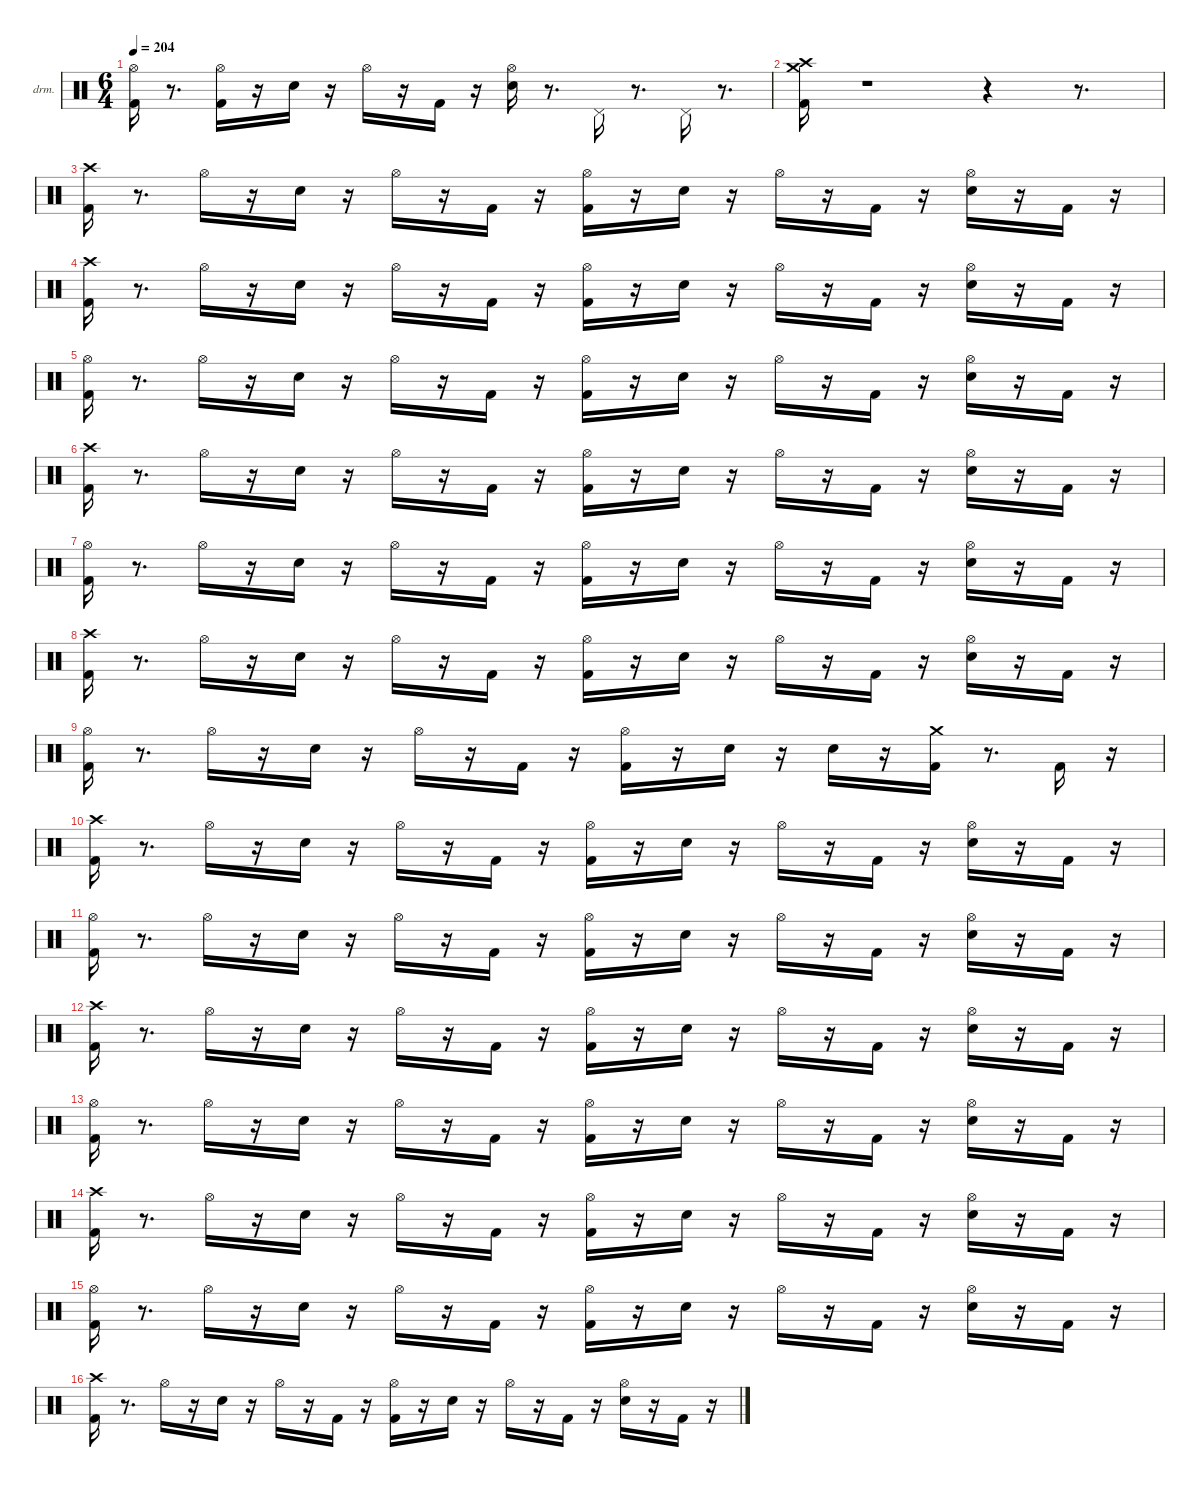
\hideDynamics
\bracketExtendMode nobrackets
\firstSystemTrackNameOrientation horizontal
\track ("drums" "drm.") {instrument percussion}
\staff {score}
\articulation defaults
\ts (6 4)
\tempo 204
\clef neutral
\ks aminor
("Kick (hit) 2" "Hi-Hat (open)"{acc #}).16{dy fff beam Down} r.8{d beam Down} ("Kick (hit) 2" "Hi-Hat (open)"{acc #}).16{dy ff beam Down} r.16{beam Down} "Snare (hit) 2".16{beam Down} r.16{beam Down} "Hi-Hat (open)"{acc #}.16{dy f beam Down} r.16{beam Down} "Kick (hit) 2".16{beam Down} r.16{beam Down} ("Snare (hit) 2" "Hi-Hat (open)"{acc #}).16{dy ff beam Down} r.8{d beam Down} "Pedal Hi-Hat (hit)"{acc #}.16{dy f beam Down} r.8{d beam Down} "Pedal Hi-Hat (hit)"{acc #}.16{dy fff beam Down} r.8{d beam Down} |
("Kick (hit) 2" "Crash high (hit)"{acc #} "Crash medium (hit)").16{beam Down} r.1{beam Down} r.4{beam Down} r.8{d beam Down} |
("Kick (hit) 2" "Crash high (hit)"{acc #}).16{beam Down} r.8{d beam Down} "Hi-Hat (open)"{acc #}.16{dy mf beam Down} r.16{beam Down} "Snare (hit) 2".16{dy ff beam Down} r.16{beam Down} "Hi-Hat (open)"{acc #}.16{dy f beam Down} r.16{beam Down} "Kick (hit) 2".16{dy mf beam Down} r.16{beam Down} ("Kick (hit) 2" "Hi-Hat (open)"{acc #}).16{dy fff beam Down} r.16{beam Down} "Snare (hit) 2".16{dy ff beam Down} r.16{beam Down} "Hi-Hat (open)"{acc #}.16{dy mf beam Down} r.16{beam Down} "Kick (hit) 2".16{dy ff beam Down} r.16{beam Down} ("Snare (hit) 2" "Hi-Hat (open)"{acc #}).16{dy f beam Down} r.16{beam Down} "Kick (hit) 2".16{dy mp beam Down} r.16{beam Down} |
("Kick (hit) 2" "Crash high (hit)"{acc #}).16{dy fff beam Down} r.8{d beam Down} "Hi-Hat (open)"{acc #}.16{dy mf beam Down} r.16{beam Down} "Snare (hit) 2".16{dy ff beam Down} r.16{beam Down} "Hi-Hat (open)"{acc #}.16{dy f beam Down} r.16{beam Down} "Kick (hit) 2".16{dy mf beam Down} r.16{beam Down} ("Kick (hit) 2" "Hi-Hat (open)"{acc #}).16{dy fff beam Down} r.16{beam Down} "Snare (hit) 2".16{dy ff beam Down} r.16{beam Down} "Hi-Hat (open)"{acc #}.16{dy mp beam Down} r.16{beam Down} "Kick (hit) 2".16{dy ff beam Down} r.16{beam Down} ("Snare (hit) 2" "Hi-Hat (open)"{acc #}).16{dy f beam Down} r.16{beam Down} "Kick (hit) 2".16{dy mp beam Down} r.16{beam Down} |
("Kick (hit) 2" "Hi-Hat (open)"{acc #}).16{dy fff beam Down} r.8{d beam Down} "Hi-Hat (open)"{acc #}.16{dy mp beam Down} r.16{beam Down} "Snare (hit) 2".16{dy ff beam Down} r.16{beam Down} "Hi-Hat (open)"{acc #}.16{dy f beam Down} r.16{beam Down} "Kick (hit) 2".16{dy mf beam Down} r.16{beam Down} ("Kick (hit) 2" "Hi-Hat (open)"{acc #}).16{dy fff beam Down} r.16{beam Down} "Snare (hit) 2".16{dy ff beam Down} r.16{beam Down} "Hi-Hat (open)"{acc #}.16{dy mf beam Down} r.16{beam Down} "Kick (hit) 2".16{dy ff beam Down} r.16{beam Down} ("Snare (hit) 2" "Hi-Hat (open)"{acc #}).16{dy f beam Down} r.16{beam Down} "Kick (hit) 2".16{dy mp beam Down} r.16{beam Down} |
("Kick (hit) 2" "Crash high (hit)"{acc #}).16{dy fff beam Down} r.8{d beam Down} "Hi-Hat (open)"{acc #}.16{dy mf beam Down} r.16{beam Down} "Snare (hit) 2".16{dy ff beam Down} r.16{beam Down} "Hi-Hat (open)"{acc #}.16{dy f beam Down} r.16{beam Down} "Kick (hit) 2".16{dy mf beam Down} r.16{beam Down} ("Kick (hit) 2" "Hi-Hat (open)"{acc #}).16{dy fff beam Down} r.16{beam Down} "Snare (hit) 2".16{dy ff beam Down} r.16{beam Down} "Hi-Hat (open)"{acc #}.16{dy mp beam Down} r.16{beam Down} "Kick (hit) 2".16{dy ff beam Down} r.16{beam Down} ("Snare (hit) 2" "Hi-Hat (open)"{acc #}).16{dy f beam Down} r.16{beam Down} "Kick (hit) 2".16{dy mp beam Down} r.16{beam Down} |
("Kick (hit) 2" "Hi-Hat (open)"{acc #}).16{dy fff beam Down} r.8{d beam Down} "Hi-Hat (open)"{acc #}.16{dy mp beam Down} r.16{beam Down} "Snare (hit) 2".16{dy ff beam Down} r.16{beam Down} "Hi-Hat (open)"{acc #}.16{dy f beam Down} r.16{beam Down} "Kick (hit) 2".16{dy mf beam Down} r.16{beam Down} ("Kick (hit) 2" "Hi-Hat (open)"{acc #}).16{dy fff beam Down} r.16{beam Down} "Snare (hit) 2".16{dy ff beam Down} r.16{beam Down} "Hi-Hat (open)"{acc #}.16{dy mf beam Down} r.16{beam Down} "Kick (hit) 2".16{dy ff beam Down} r.16{beam Down} ("Snare (hit) 2" "Hi-Hat (open)"{acc #}).16{dy f beam Down} r.16{beam Down} "Kick (hit) 2".16{dy mp beam Down} r.16{beam Down} |
("Kick (hit) 2" "Crash high (hit)"{acc #}).16{dy fff beam Down} r.8{d beam Down} "Hi-Hat (open)"{acc #}.16{dy mf beam Down} r.16{beam Down} "Snare (hit) 2".16{dy ff beam Down} r.16{beam Down} "Hi-Hat (open)"{acc #}.16{dy f beam Down} r.16{beam Down} "Kick (hit) 2".16{dy mf beam Down} r.16{beam Down} ("Kick (hit) 2" "Hi-Hat (open)"{acc #}).16{dy fff beam Down} r.16{beam Down} "Snare (hit) 2".16{dy ff beam Down} r.16{beam Down} "Hi-Hat (open)"{acc #}.16{dy mp beam Down} r.16{beam Down} "Kick (hit) 2".16{dy ff beam Down} r.16{beam Down} ("Snare (hit) 2" "Hi-Hat (open)"{acc #}).16{dy f beam Down} r.16{beam Down} "Kick (hit) 2".16{dy mp beam Down} r.16{beam Down} |
("Kick (hit) 2" "Hi-Hat (open)"{acc #}).16{dy fff beam Down} r.8{d beam Down} "Hi-Hat (open)"{acc #}.16{dy mp beam Down} r.16{beam Down} "Snare (hit) 2".16{dy ff beam Down} r.16{beam Down} "Hi-Hat (open)"{acc #}.16{dy f beam Down} r.16{beam Down} "Kick (hit) 2".16{dy mf beam Down} r.16{beam Down} ("Kick (hit) 2" "Hi-Hat (open)"{acc #}).16{dy fff beam Down} r.16{beam Down} "Snare (hit) 2".16{dy ff beam Down} r.16{beam Down} "Snare (hit) 2".16{dy p beam Down} r.16{beam Down} ("Kick (hit) 2" "Crash medium (hit)").16{dy ff beam Down} r.8{d beam Down} "Kick (hit) 2".16{dy mf beam Down} r.16{beam Down} |
("Kick (hit) 2" "Crash high (hit)"{acc #}).16{dy fff beam Down} r.8{d beam Down} "Hi-Hat (open)"{acc #}.16{dy mf beam Down} r.16{beam Down} "Snare (hit) 2".16{dy ff beam Down} r.16{beam Down} "Hi-Hat (open)"{acc #}.16{dy f beam Down} r.16{beam Down} "Kick (hit) 2".16{dy mf beam Down} r.16{beam Down} ("Kick (hit) 2" "Hi-Hat (open)"{acc #}).16{dy fff beam Down} r.16{beam Down} "Snare (hit) 2".16{dy ff beam Down} r.16{beam Down} "Hi-Hat (open)"{acc #}.16{dy mp beam Down} r.16{beam Down} "Kick (hit) 2".16{dy ff beam Down} r.16{beam Down} ("Snare (hit) 2" "Hi-Hat (open)"{acc #}).16{dy f beam Down} r.16{beam Down} "Kick (hit) 2".16{dy mp beam Down} r.16{beam Down} |
("Kick (hit) 2" "Hi-Hat (open)"{acc #}).16{dy fff beam Down} r.8{d beam Down} "Hi-Hat (open)"{acc #}.16{dy mf beam Down} r.16{beam Down} "Snare (hit) 2".16{dy ff beam Down} r.16{beam Down} "Hi-Hat (open)"{acc #}.16{dy f beam Down} r.16{beam Down} "Kick (hit) 2".16{dy mf beam Down} r.16{beam Down} ("Kick (hit) 2" "Hi-Hat (open)"{acc #}).16{dy fff beam Down} r.16{beam Down} "Snare (hit) 2".16{dy ff beam Down} r.16{beam Down} "Hi-Hat (open)"{acc #}.16{dy mf beam Down} r.16{beam Down} "Kick (hit) 2".16{dy ff beam Down} r.16{beam Down} ("Snare (hit) 2" "Hi-Hat (open)"{acc #}).16{dy f beam Down} r.16{beam Down} "Kick (hit) 2".16{dy mp beam Down} r.16{beam Down} |
("Kick (hit) 2" "Crash high (hit)"{acc #}).16{dy fff beam Down} r.8{d beam Down} "Hi-Hat (open)"{acc #}.16{dy mf beam Down} r.16{beam Down} "Snare (hit) 2".16{dy ff beam Down} r.16{beam Down} "Hi-Hat (open)"{acc #}.16{dy f beam Down} r.16{beam Down} "Kick (hit) 2".16{dy mf beam Down} r.16{beam Down} ("Kick (hit) 2" "Hi-Hat (open)"{acc #}).16{dy fff beam Down} r.16{beam Down} "Snare (hit) 2".16{dy ff beam Down} r.16{beam Down} "Hi-Hat (open)"{acc #}.16{dy mp beam Down} r.16{beam Down} "Kick (hit) 2".16{dy ff beam Down} r.16{beam Down} ("Snare (hit) 2" "Hi-Hat (open)"{acc #}).16{dy f beam Down} r.16{beam Down} "Kick (hit) 2".16{dy mp beam Down} r.16{beam Down} |
("Kick (hit) 2" "Hi-Hat (open)"{acc #}).16{dy fff beam Down} r.8{d beam Down} "Hi-Hat (open)"{acc #}.16{dy mp beam Down} r.16{beam Down} "Snare (hit) 2".16{dy ff beam Down} r.16{beam Down} "Hi-Hat (open)"{acc #}.16{dy f beam Down} r.16{beam Down} "Kick (hit) 2".16{dy mf beam Down} r.16{beam Down} ("Kick (hit) 2" "Hi-Hat (open)"{acc #}).16{dy fff beam Down} r.16{beam Down} "Snare (hit) 2".16{dy ff beam Down} r.16{beam Down} "Hi-Hat (open)"{acc #}.16{dy mf beam Down} r.16{beam Down} "Kick (hit) 2".16{dy ff beam Down} r.16{beam Down} ("Snare (hit) 2" "Hi-Hat (open)"{acc #}).16{dy f beam Down} r.16{beam Down} "Kick (hit) 2".16{dy mp beam Down} r.16{beam Down} |
("Kick (hit) 2" "Crash high (hit)"{acc #}).16{dy fff beam Down} r.8{d beam Down} "Hi-Hat (open)"{acc #}.16{dy mf beam Down} r.16{beam Down} "Snare (hit) 2".16{dy ff beam Down} r.16{beam Down} "Hi-Hat (open)"{acc #}.16{dy f beam Down} r.16{beam Down} "Kick (hit) 2".16{dy mf beam Down} r.16{beam Down} ("Kick (hit) 2" "Hi-Hat (open)"{acc #}).16{dy fff beam Down} r.16{beam Down} "Snare (hit) 2".16{dy ff beam Down} r.16{beam Down} "Hi-Hat (open)"{acc #}.16{dy mp beam Down} r.16{beam Down} "Kick (hit) 2".16{dy ff beam Down} r.16{beam Down} ("Snare (hit) 2" "Hi-Hat (open)"{acc #}).16{dy f beam Down} r.16{beam Down} "Kick (hit) 2".16{dy mp beam Down} r.16{beam Down} |
("Kick (hit) 2" "Hi-Hat (open)"{acc #}).16{dy fff beam Down} r.8{d beam Down} "Hi-Hat (open)"{acc #}.16{dy mp beam Down} r.16{beam Down} "Snare (hit) 2".16{dy ff beam Down} r.16{beam Down} "Hi-Hat (open)"{acc #}.16{dy f beam Down} r.16{beam Down} "Kick (hit) 2".16{dy mf beam Down} r.16{beam Down} ("Kick (hit) 2" "Hi-Hat (open)"{acc #}).16{dy fff beam Down} r.16{beam Down} "Snare (hit) 2".16{dy ff beam Down} r.16{beam Down} "Hi-Hat (open)"{acc #}.16{dy mf beam Down} r.16{beam Down} "Kick (hit) 2".16{dy ff beam Down} r.16{beam Down} ("Snare (hit) 2" "Hi-Hat (open)"{acc #}).16{dy f beam Down} r.16{beam Down} "Kick (hit) 2".16{dy mp beam Down} r.16{beam Down} |
("Kick (hit) 2" "Crash high (hit)"{acc #}).16{dy fff beam Down} r.8{d beam Down} "Hi-Hat (open)"{acc #}.16{dy mf beam Down} r.16{beam Down} "Snare (hit) 2".16{dy ff beam Down} r.16{beam Down} "Hi-Hat (open)"{acc #}.16{dy f beam Down} r.16{beam Down} "Kick (hit) 2".16{dy mf beam Down} r.16{beam Down} ("Kick (hit) 2" "Hi-Hat (open)"{acc #}).16{dy fff beam Down} r.16{beam Down} "Snare (hit) 2".16{dy ff beam Down} r.16{beam Down} "Hi-Hat (open)"{acc #}.16{dy mp beam Down} r.16{beam Down} "Kick (hit) 2".16{dy ff beam Down} r.16{beam Down} ("Snare (hit) 2" "Hi-Hat (open)"{acc #}).16{dy f beam Down} r.16{beam Down} "Kick (hit) 2".16{dy mp beam Down} r.16{beam Down}
